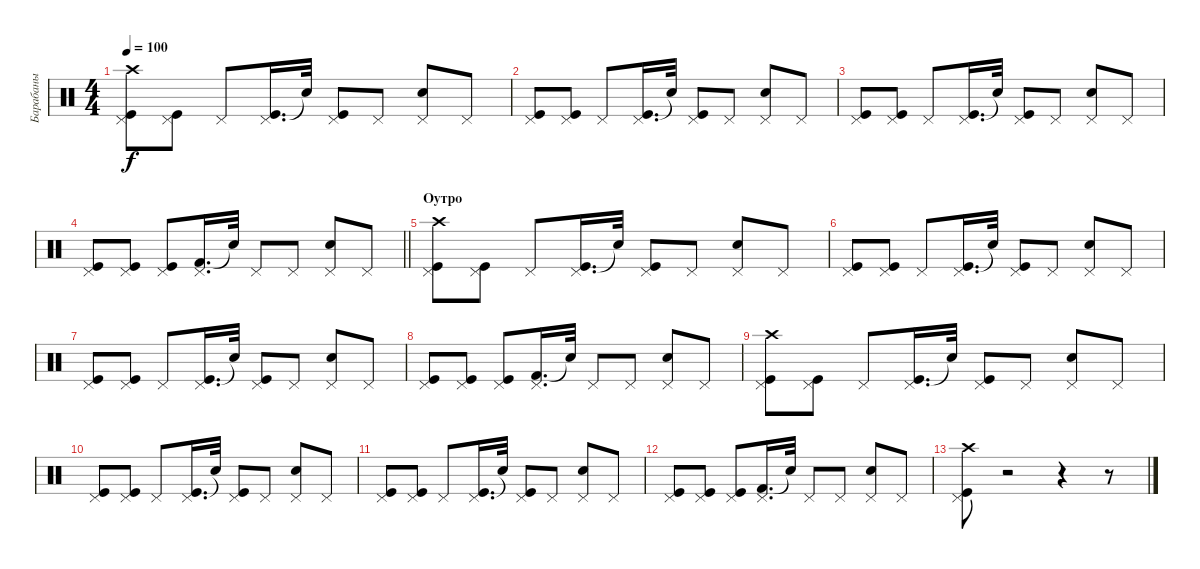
\track ("Барабаны" "Барабаны") {instrument percussion}
\staff {score}
\articulation defaults
\ts (4 4)
\tempo 100
\clef neutral
\ks c
("Crash high (hit)" "Kick (hit)" "Pedal Hi-Hat (hit)").8{dy f} ("Kick (hit)" "Pedal Hi-Hat (hit)").8 "Pedal Hi-Hat (hit)".8 ("Kick (hit)" "Pedal Hi-Hat (hit)").16{d} "Snare (hit)"{t}.32 ("Kick (hit)" "Pedal Hi-Hat (hit)").8 "Pedal Hi-Hat (hit)".8 ("Snare (hit) 2" "Pedal Hi-Hat (hit)").8 "Pedal Hi-Hat (hit)".8 |
("Kick (hit)" "Pedal Hi-Hat (hit)").8 ("Kick (hit)" "Pedal Hi-Hat (hit)").8 "Pedal Hi-Hat (hit)".8 ("Kick (hit)" "Pedal Hi-Hat (hit)").16{d} "Snare (hit)"{t}.32 ("Kick (hit)" "Pedal Hi-Hat (hit)").8 "Pedal Hi-Hat (hit)".8 ("Snare (hit) 2" "Pedal Hi-Hat (hit)").8 "Pedal Hi-Hat (hit)".8 |
("Kick (hit)" "Pedal Hi-Hat (hit)").8 ("Kick (hit)" "Pedal Hi-Hat (hit)").8 "Pedal Hi-Hat (hit)".8 ("Kick (hit)" "Pedal Hi-Hat (hit)").16{d} "Snare (hit)"{t}.32 ("Kick (hit)" "Pedal Hi-Hat (hit)").8 "Pedal Hi-Hat (hit)".8 ("Snare (hit) 2" "Pedal Hi-Hat (hit)").8 "Pedal Hi-Hat (hit)".8 |
\barLineRight lightlight
("Kick (hit)" "Pedal Hi-Hat (hit)").8 ("Kick (hit)" "Pedal Hi-Hat (hit)").8 ("Kick (hit)" "Pedal Hi-Hat (hit)").8 ("Kick (hit) 2" "Pedal Hi-Hat (hit)").16{d} "Snare (hit)"{t}.32 "Pedal Hi-Hat (hit)".8 "Pedal Hi-Hat (hit)".8 ("Snare (hit) 2" "Pedal Hi-Hat (hit)").8 "Pedal Hi-Hat (hit)".8 |
\section ("" "Оутро")
("Crash high (hit)" "Kick (hit)" "Pedal Hi-Hat (hit)").8 ("Kick (hit)" "Pedal Hi-Hat (hit)").8 "Pedal Hi-Hat (hit)".8 ("Kick (hit)" "Pedal Hi-Hat (hit)").16{d} "Snare (hit)"{t}.32 ("Kick (hit)" "Pedal Hi-Hat (hit)").8 "Pedal Hi-Hat (hit)".8 ("Snare (hit) 2" "Pedal Hi-Hat (hit)").8 "Pedal Hi-Hat (hit)".8 |
("Kick (hit)" "Pedal Hi-Hat (hit)").8 ("Kick (hit)" "Pedal Hi-Hat (hit)").8 "Pedal Hi-Hat (hit)".8 ("Kick (hit)" "Pedal Hi-Hat (hit)").16{d} "Snare (hit)"{t}.32 ("Kick (hit)" "Pedal Hi-Hat (hit)").8 "Pedal Hi-Hat (hit)".8 ("Snare (hit) 2" "Pedal Hi-Hat (hit)").8 "Pedal Hi-Hat (hit)".8 |
("Kick (hit)" "Pedal Hi-Hat (hit)").8 ("Kick (hit)" "Pedal Hi-Hat (hit)").8 "Pedal Hi-Hat (hit)".8 ("Kick (hit)" "Pedal Hi-Hat (hit)").16{d} "Snare (hit)"{t}.32 ("Kick (hit)" "Pedal Hi-Hat (hit)").8 "Pedal Hi-Hat (hit)".8 ("Snare (hit) 2" "Pedal Hi-Hat (hit)").8 "Pedal Hi-Hat (hit)".8 |
("Kick (hit)" "Pedal Hi-Hat (hit)").8 ("Kick (hit)" "Pedal Hi-Hat (hit)").8 ("Kick (hit)" "Pedal Hi-Hat (hit)").8 ("Kick (hit) 2" "Pedal Hi-Hat (hit)").16{d} "Snare (hit)"{t}.32 "Pedal Hi-Hat (hit)".8 "Pedal Hi-Hat (hit)".8 ("Snare (hit) 2" "Pedal Hi-Hat (hit)").8 "Pedal Hi-Hat (hit)".8 |
("Crash high (hit)" "Kick (hit)" "Pedal Hi-Hat (hit)").8 ("Kick (hit)" "Pedal Hi-Hat (hit)").8 "Pedal Hi-Hat (hit)".8 ("Kick (hit)" "Pedal Hi-Hat (hit)").16{d} "Snare (hit)"{t}.32 ("Kick (hit)" "Pedal Hi-Hat (hit)").8 "Pedal Hi-Hat (hit)".8 ("Snare (hit) 2" "Pedal Hi-Hat (hit)").8 "Pedal Hi-Hat (hit)".8 |
("Kick (hit)" "Pedal Hi-Hat (hit)").8 ("Kick (hit)" "Pedal Hi-Hat (hit)").8 "Pedal Hi-Hat (hit)".8 ("Kick (hit)" "Pedal Hi-Hat (hit)").16{d} "Snare (hit)"{t}.32 ("Kick (hit)" "Pedal Hi-Hat (hit)").8 "Pedal Hi-Hat (hit)".8 ("Snare (hit) 2" "Pedal Hi-Hat (hit)").8 "Pedal Hi-Hat (hit)".8 |
("Kick (hit)" "Pedal Hi-Hat (hit)").8 ("Kick (hit)" "Pedal Hi-Hat (hit)").8 "Pedal Hi-Hat (hit)".8 ("Kick (hit)" "Pedal Hi-Hat (hit)").16{d} "Snare (hit)"{t}.32 ("Kick (hit)" "Pedal Hi-Hat (hit)").8 "Pedal Hi-Hat (hit)".8 ("Snare (hit) 2" "Pedal Hi-Hat (hit)").8 "Pedal Hi-Hat (hit)".8 |
("Kick (hit)" "Pedal Hi-Hat (hit)").8 ("Kick (hit)" "Pedal Hi-Hat (hit)").8 ("Kick (hit)" "Pedal Hi-Hat (hit)").8 ("Kick (hit) 2" "Pedal Hi-Hat (hit)").16{d} "Snare (hit)"{t}.32 "Pedal Hi-Hat (hit)".8 "Pedal Hi-Hat (hit)".8 ("Snare (hit) 2" "Pedal Hi-Hat (hit)").8 "Pedal Hi-Hat (hit)".8 |
("Crash high (hit)" "Kick (hit)" "Pedal Hi-Hat (hit)").8 r.2 r.4 r.8
